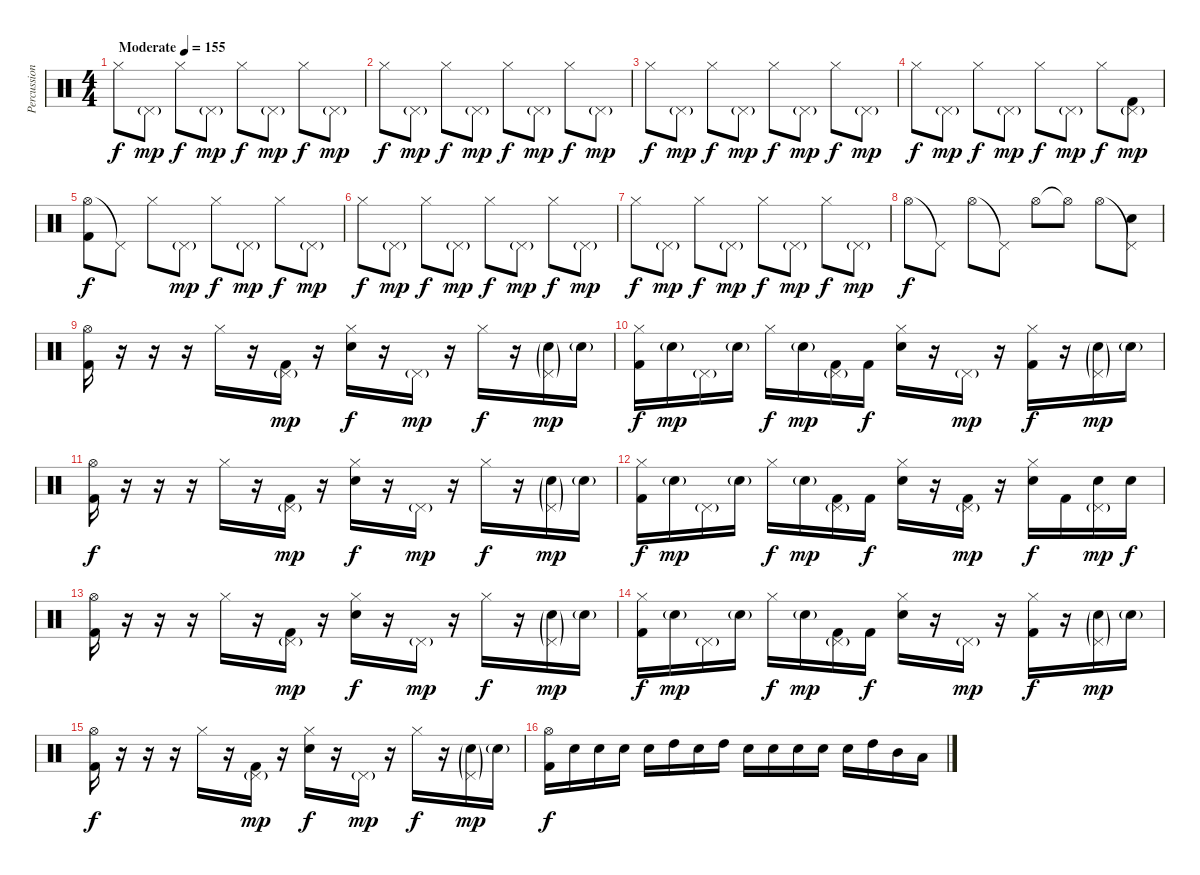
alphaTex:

\track ("Percussion" "Percussion") {instrument percussion}
\staff {score}
\articulation defaults
\ts (4 4)
\tempo (155 "Moderate")
\clef neutral
\ks c "Hi-Hat (closed)".8{dy f} "Pedal Hi-Hat (hit)"{g}.8{dy mp} "Hi-Hat (closed)".8{dy f} "Pedal Hi-Hat (hit)"{g}.8{dy mp} "Hi-Hat (closed)".8{dy f} "Pedal Hi-Hat (hit)"{g}.8{dy mp} "Hi-Hat (closed)".8{dy f} "Pedal Hi-Hat (hit)"{g}.8{dy mp}
|
"Hi-Hat (closed)".8{dy f} "Pedal Hi-Hat (hit)"{g}.8{dy mp} "Hi-Hat (closed)".8{dy f} "Pedal Hi-Hat (hit)"{g}.8{dy mp} "Hi-Hat (closed)".8{dy f} "Pedal Hi-Hat (hit)"{g}.8{dy mp} "Hi-Hat (closed)".8{dy f} "Pedal Hi-Hat (hit)"{g}.8{dy mp} |
"Hi-Hat (closed)".8{dy f} "Pedal Hi-Hat (hit)"{g}.8{dy mp} "Hi-Hat (closed)".8{dy f} "Pedal Hi-Hat (hit)"{g}.8{dy mp} "Hi-Hat (closed)".8{dy f} "Pedal Hi-Hat (hit)"{g}.8{dy mp} "Hi-Hat (closed)".8{dy f} "Pedal Hi-Hat (hit)"{g}.8{dy mp} |
"Hi-Hat (closed)".8{dy f} "Pedal Hi-Hat (hit)"{g}.8{dy mp} "Hi-Hat (closed)".8{dy f} "Pedal Hi-Hat (hit)"{g}.8{dy mp} "Hi-Hat (closed)".8{dy f} "Pedal Hi-Hat (hit)"{g}.8{dy mp} "Hi-Hat (closed)".8{dy f} ("Pedal Hi-Hat (hit)"{g} "Kick (hit) 2").8{dy mp} |
("Hi-Hat (open)" "Kick (hit) 2").8{dy f} "Pedal Hi-Hat (hit)"{t}.8 "Hi-Hat (closed)".8 "Pedal Hi-Hat (hit)"{g}.8{dy mp} "Hi-Hat (closed)".8{dy f} "Pedal Hi-Hat (hit)"{g}.8{dy mp} "Hi-Hat (closed)".8{dy f} "Pedal Hi-Hat (hit)"{g}.8{dy mp} |
"Hi-Hat (closed)".8{dy f} "Pedal Hi-Hat (hit)"{g}.8{dy mp} "Hi-Hat (closed)".8{dy f} "Pedal Hi-Hat (hit)"{g}.8{dy mp} "Hi-Hat (closed)".8{dy f} "Pedal Hi-Hat (hit)"{g}.8{dy mp} "Hi-Hat (closed)".8{dy f} "Pedal Hi-Hat (hit)"{g}.8{dy mp} |
"Hi-Hat (closed)".8{dy f} "Pedal Hi-Hat (hit)"{g}.8{dy mp} "Hi-Hat (closed)".8{dy f} "Pedal Hi-Hat (hit)"{g}.8{dy mp} "Hi-Hat (closed)".8{dy f} "Pedal Hi-Hat (hit)"{g}.8{dy mp} "Hi-Hat (closed)".8{dy f} "Pedal Hi-Hat (hit)"{g}.8{dy mp} |
"Hi-Hat (open)".8{dy f} "Pedal Hi-Hat (hit)"{t}.8 "Hi-Hat (open)".8 "Pedal Hi-Hat (hit)"{t}.8 "Hi-Hat (open)".8 "Hi-Hat (open)"{t}.8 "Hi-Hat (open)".8 ("Pedal Hi-Hat (hit)"{t} "Snare (hit) 2").8 |
("Hi-Hat (open)" "Kick (hit) 2").16 r.16 r.16 r.16 "Hi-Hat (closed)".16 r.16 ("Pedal Hi-Hat (hit)"{g} "Kick (hit) 2").16{dy mp} r.16 ("Hi-Hat (closed)" "Snare (hit) 2").16{dy f} r.16 "Pedal Hi-Hat (hit)"{g}.16{dy mp} r.16 "Hi-Hat (closed)".16{dy f} r.16 ("Pedal Hi-Hat (hit)"{g} "Snare (hit) 2"{g}).16{dy mp} "Snare (hit) 2"{g}.16 |
("Hi-Hat (closed)" "Kick (hit) 2").16{dy f} "Snare (hit) 2"{g}.16{dy mp} "Pedal Hi-Hat (hit)"{g}.16 "Snare (hit) 2"{g}.16 "Hi-Hat (closed)".16{dy f} "Snare (hit) 2"{g}.16{dy mp} ("Pedal Hi-Hat (hit)"{g} "Kick (hit) 2").16 "Kick (hit) 2".16{dy f} ("Hi-Hat (closed)" "Snare (hit) 2").16 r.16 "Pedal Hi-Hat (hit)"{g}.16{dy mp} r.16 ("Hi-Hat (closed)" "Kick (hit) 2").16{dy f} r.16 ("Pedal Hi-Hat (hit)"{g} "Snare (hit) 2"{g}).16{dy mp} "Snare (hit) 2"{g}.16 |
("Hi-Hat (open)" "Kick (hit) 2").16{dy f} r.16 r.16 r.16 "Hi-Hat (closed)".16 r.16 ("Pedal Hi-Hat (hit)"{g} "Kick (hit) 2").16{dy mp} r.16 ("Hi-Hat (closed)" "Snare (hit) 2").16{dy f} r.16 "Pedal Hi-Hat (hit)"{g}.16{dy mp} r.16 "Hi-Hat (closed)".16{dy f} r.16 ("Pedal Hi-Hat (hit)"{g} "Snare (hit) 2"{g}).16{dy mp} "Snare (hit) 2"{g}.16 |
("Hi-Hat (closed)" "Kick (hit) 2").16{dy f} "Snare (hit) 2"{g}.16{dy mp} "Pedal Hi-Hat (hit)"{g}.16 "Snare (hit) 2"{g}.16 "Hi-Hat (closed)".16{dy f} "Snare (hit) 2"{g}.16{dy mp} ("Pedal Hi-Hat (hit)"{g} "Kick (hit) 2").16 "Kick (hit) 2".16{dy f} ("Hi-Hat (closed)" "Snare (hit) 2").16 r.16 ("Pedal Hi-Hat (hit)"{g} "Kick (hit) 2").16{dy mp} r.16 ("Hi-Hat (closed)" "Snare (hit) 2").16{dy f} "Kick (hit) 2".16 ("Pedal Hi-Hat (hit)"{g} "Snare (hit) 2").16{dy mp} "Snare (hit) 2".16{dy f} |
("Hi-Hat (open)" "Kick (hit) 2").16 r.16 r.16 r.16 "Hi-Hat (closed)".16 r.16 ("Pedal Hi-Hat (hit)"{g} "Kick (hit) 2").16{dy mp} r.16 ("Hi-Hat (closed)" "Snare (hit) 2").16{dy f} r.16 "Pedal Hi-Hat (hit)"{g}.16{dy mp} r.16 "Hi-Hat (closed)".16{dy f} r.16 ("Pedal Hi-Hat (hit)"{g} "Snare (hit) 2"{g}).16{dy mp} "Snare (hit) 2"{g}.16 |
("Hi-Hat (closed)" "Kick (hit) 2").16{dy f} "Snare (hit) 2"{g}.16{dy mp} "Pedal Hi-Hat (hit)"{g}.16 "Snare (hit) 2"{g}.16 "Hi-Hat (closed)".16{dy f} "Snare (hit) 2"{g}.16{dy mp} ("Pedal Hi-Hat (hit)"{g} "Kick (hit) 2").16 "Kick (hit) 2".16{dy f} ("Hi-Hat (closed)" "Snare (hit) 2").16 r.16 "Pedal Hi-Hat (hit)"{g}.16{dy mp} r.16 ("Hi-Hat (closed)" "Kick (hit) 2").16{dy f} r.16 ("Pedal Hi-Hat (hit)"{g} "Snare (hit) 2"{g}).16{dy mp} "Snare (hit) 2"{g}.16 |
("Hi-Hat (open)" "Kick (hit) 2").16{dy f} r.16 r.16 r.16 "Hi-Hat (closed)".16 r.16 ("Pedal Hi-Hat (hit)"{g} "Kick (hit) 2").16{dy mp} r.16 ("Hi-Hat (closed)" "Snare (hit) 2").16{dy f} r.16 "Pedal Hi-Hat (hit)"{g}.16{dy mp} r.16 "Hi-Hat (closed)".16{dy f} r.16 ("Pedal Hi-Hat (hit)"{g} "Snare (hit) 2"{g}).16{dy mp} "Snare (hit) 2"{g}.16 |
("Hi-Hat (open)" "Kick (hit) 2").16{dy f} "Snare (hit) 2".16 "Snare (hit) 2".16 "Snare (hit) 2".16 "Snare (hit) 2".16 "High Tom (hit)".16 "Snare (hit) 2".16 "High Tom (hit)".16 "Snare (hit) 2".16 "Snare (hit) 2".16 "Snare (hit) 2".16 "Snare (hit) 2".16 "Snare (hit) 2".16 "High Tom (hit)".16 "Mid Tom (hit)".16 "Low Tom (hit)".16
